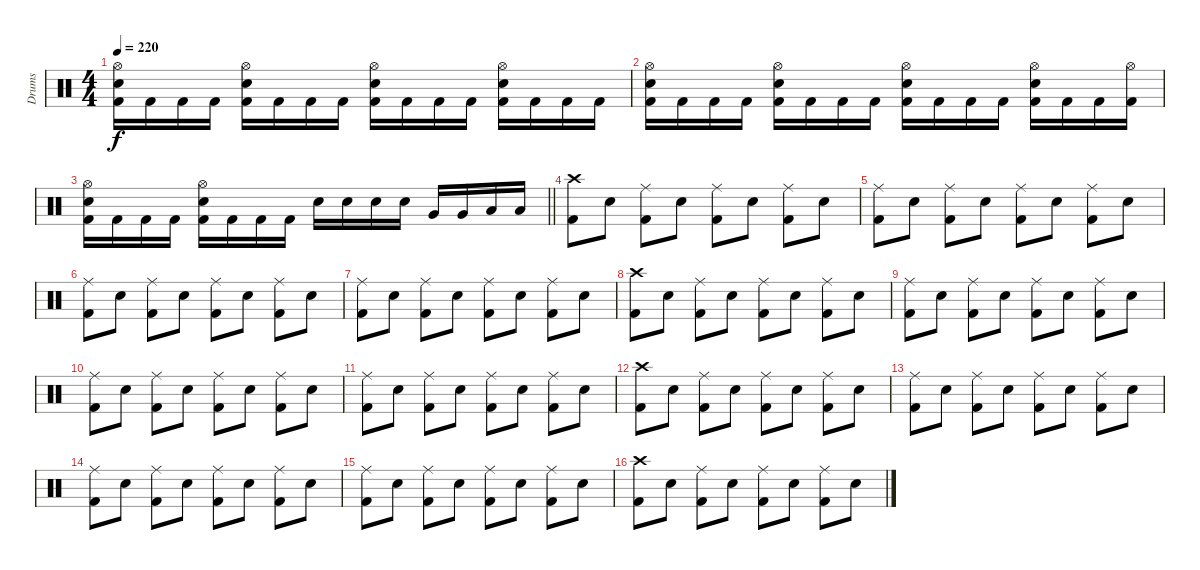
\track ("Drums" "Drums") {instrument percussion}
\staff {score}
\articulation defaults
\ts (4 4)
\tempo 220
\clef neutral
\ks c
("Hi-Hat (open)" "Electric Snare (hit)" "Kick (hit) 2").16{dy f} "Kick (hit) 2".16 "Kick (hit) 2".16 "Kick (hit) 2".16 ("Hi-Hat (open)" "Electric Snare (hit)" "Kick (hit) 2").16 "Kick (hit) 2".16 "Kick (hit) 2".16 "Kick (hit) 2".16 ("Hi-Hat (open)" "Electric Snare (hit)" "Kick (hit) 2").16 "Kick (hit) 2".16 "Kick (hit) 2".16 "Kick (hit) 2".16 ("Hi-Hat (open)" "Electric Snare (hit)" "Kick (hit) 2").16 "Kick (hit) 2".16 "Kick (hit) 2".16 "Kick (hit) 2".16 |
("Hi-Hat (open)" "Electric Snare (hit)" "Kick (hit) 2").16 "Kick (hit) 2".16 "Kick (hit) 2".16 "Kick (hit) 2".16 ("Hi-Hat (open)" "Electric Snare (hit)" "Kick (hit) 2").16 "Kick (hit) 2".16 "Kick (hit) 2".16 "Kick (hit) 2".16 ("Hi-Hat (open)" "Electric Snare (hit)" "Kick (hit) 2").16 "Kick (hit) 2".16 "Kick (hit) 2".16 "Kick (hit) 2".16 ("Hi-Hat (open)" "Electric Snare (hit)" "Kick (hit) 2").16 "Kick (hit) 2".16 "Kick (hit) 2".16 ("Hi-Hat (open)" "Kick (hit) 2").16 |
\barLineRight lightlight
("Hi-Hat (open)" "Electric Snare (hit)" "Kick (hit) 2").16 "Kick (hit) 2".16 "Kick (hit) 2".16 "Kick (hit) 2".16 ("Hi-Hat (open)" "Electric Snare (hit)" "Kick (hit) 2").16 "Kick (hit) 2".16 "Kick (hit) 2".16 "Kick (hit) 2".16 "Electric Snare (hit)".16 "Electric Snare (hit)".16 "Electric Snare (hit)".16 "Electric Snare (hit)".16 "Very Low Tom (hit)".16 "Very Low Tom (hit)".16 "Low Floor Tom (hit)".16 "Low Floor Tom (hit)".16 |
("Crash high (hit)" "Kick (hit) 2").8 "Electric Snare (hit)".8 ("Ride (middle)" "Kick (hit) 2").8 "Electric Snare (hit)".8 ("Ride (middle)" "Kick (hit) 2").8 "Electric Snare (hit)".8 ("Ride (middle)" "Kick (hit) 2").8 "Electric Snare (hit)".8 |
("Ride (middle)" "Kick (hit) 2").8 "Electric Snare (hit)".8 ("Ride (middle)" "Kick (hit) 2").8 "Electric Snare (hit)".8 ("Ride (middle)" "Kick (hit) 2").8 "Electric Snare (hit)".8 ("Ride (middle)" "Kick (hit) 2").8 "Electric Snare (hit)".8 |
("Ride (middle)" "Kick (hit) 2").8 "Electric Snare (hit)".8 ("Ride (middle)" "Kick (hit) 2").8 "Electric Snare (hit)".8 ("Ride (middle)" "Kick (hit) 2").8 "Electric Snare (hit)".8 ("Ride (middle)" "Kick (hit) 2").8 "Electric Snare (hit)".8 |
("Ride (middle)" "Kick (hit) 2").8 "Electric Snare (hit)".8 ("Ride (middle)" "Kick (hit) 2").8 "Electric Snare (hit)".8 ("Ride (middle)" "Kick (hit) 2").8 "Electric Snare (hit)".8 ("Ride (middle)" "Kick (hit) 2").8 "Electric Snare (hit)".8 |
("Crash high (hit)" "Kick (hit) 2").8 "Electric Snare (hit)".8 ("Ride (middle)" "Kick (hit) 2").8 "Electric Snare (hit)".8 ("Ride (middle)" "Kick (hit) 2").8 "Electric Snare (hit)".8 ("Ride (middle)" "Kick (hit) 2").8 "Electric Snare (hit)".8 |
("Ride (middle)" "Kick (hit) 2").8 "Electric Snare (hit)".8 ("Ride (middle)" "Kick (hit) 2").8 "Electric Snare (hit)".8 ("Ride (middle)" "Kick (hit) 2").8 "Electric Snare (hit)".8 ("Ride (middle)" "Kick (hit) 2").8 "Electric Snare (hit)".8 |
("Ride (middle)" "Kick (hit) 2").8 "Electric Snare (hit)".8 ("Ride (middle)" "Kick (hit) 2").8 "Electric Snare (hit)".8 ("Ride (middle)" "Kick (hit) 2").8 "Electric Snare (hit)".8 ("Ride (middle)" "Kick (hit) 2").8 "Electric Snare (hit)".8 |
("Ride (middle)" "Kick (hit) 2").8 "Electric Snare (hit)".8 ("Ride (middle)" "Kick (hit) 2").8 "Electric Snare (hit)".8 ("Ride (middle)" "Kick (hit) 2").8 "Electric Snare (hit)".8 ("Ride (middle)" "Kick (hit) 2").8 "Electric Snare (hit)".8 |
("Crash high (hit)" "Kick (hit) 2").8 "Electric Snare (hit)".8 ("Ride (middle)" "Kick (hit) 2").8 "Electric Snare (hit)".8 ("Ride (middle)" "Kick (hit) 2").8 "Electric Snare (hit)".8 ("Ride (middle)" "Kick (hit) 2").8 "Electric Snare (hit)".8 |
("Ride (middle)" "Kick (hit) 2").8 "Electric Snare (hit)".8 ("Ride (middle)" "Kick (hit) 2").8 "Electric Snare (hit)".8 ("Ride (middle)" "Kick (hit) 2").8 "Electric Snare (hit)".8 ("Ride (middle)" "Kick (hit) 2").8 "Electric Snare (hit)".8 |
("Ride (middle)" "Kick (hit) 2").8 "Electric Snare (hit)".8 ("Ride (middle)" "Kick (hit) 2").8 "Electric Snare (hit)".8 ("Ride (middle)" "Kick (hit) 2").8 "Electric Snare (hit)".8 ("Ride (middle)" "Kick (hit) 2").8 "Electric Snare (hit)".8 |
("Ride (middle)" "Kick (hit) 2").8 "Electric Snare (hit)".8 ("Ride (middle)" "Kick (hit) 2").8 "Electric Snare (hit)".8 ("Ride (middle)" "Kick (hit) 2").8 "Electric Snare (hit)".8 ("Ride (middle)" "Kick (hit) 2").8 "Electric Snare (hit)".8 |
("Crash high (hit)" "Kick (hit) 2").8 "Electric Snare (hit)".8 ("Ride (middle)" "Kick (hit) 2").8 "Electric Snare (hit)".8 ("Ride (middle)" "Kick (hit) 2").8 "Electric Snare (hit)".8 ("Ride (middle)" "Kick (hit) 2").8 "Electric Snare (hit)".8
